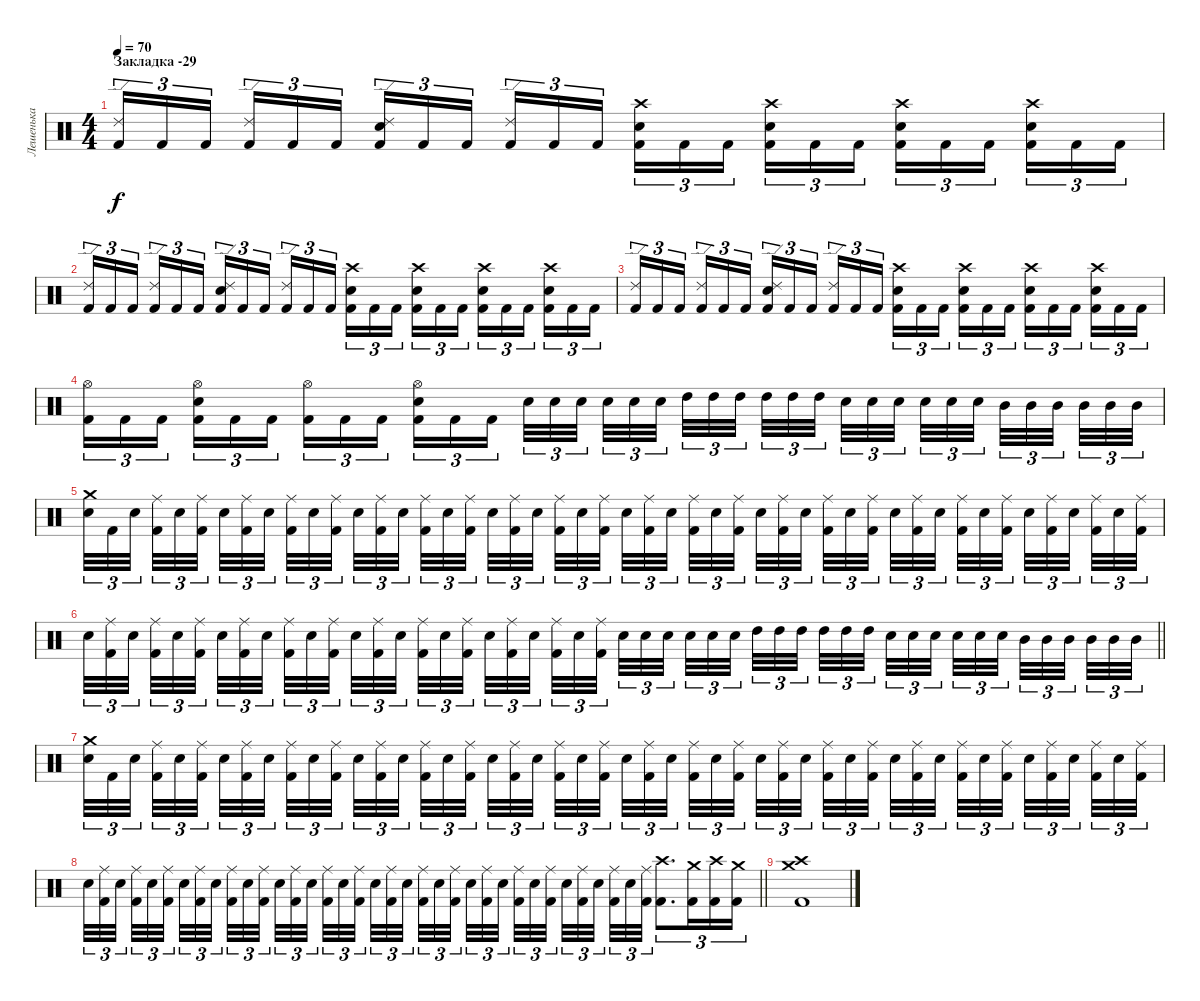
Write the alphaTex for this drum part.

\track ("Лешенька" "Лешенька") {instrument percussion}
\staff {score}
\articulation defaults
\ts (4 4)
\section ("" "Закладка -29")
\tempo 70
\clef neutral
\ks c
("Ride (edge) 2" "Kick (hit) 2").16{tu (3 2) dy f} "Kick (hit) 2".16{tu (3 2)} "Kick (hit) 2".16{tu (3 2) beam splitsecondary} ("Ride (edge) 2" "Kick (hit) 2").16{tu (3 2)} "Kick (hit) 2".16{tu (3 2)} "Kick (hit) 2".16{tu (3 2)} ("Ride (edge) 2" "Electric Snare (hit)" "Kick (hit) 2").16{tu (3 2)} "Kick (hit) 2".16{tu (3 2)} "Kick (hit) 2".16{tu (3 2) beam splitsecondary} ("Ride (edge) 2" "Kick (hit) 2").16{tu (3 2)} "Kick (hit) 2".16{tu (3 2)} "Kick (hit) 2".16{tu (3 2)} ("Crash high (hit)" "Electric Snare (hit)" "Kick (hit) 2").16{tu (3 2)} "Kick (hit) 2".16{tu (3 2)} "Kick (hit) 2".16{tu (3 2) beam splitsecondary} ("Crash high (hit)" "Electric Snare (hit)" "Kick (hit) 2").16{tu (3 2)} "Kick (hit) 2".16{tu (3 2)} "Kick (hit) 2".16{tu (3 2)} ("Crash high (hit)" "Electric Snare (hit)" "Kick (hit) 2").16{tu (3 2)} "Kick (hit) 2".16{tu (3 2)} "Kick (hit) 2".16{tu (3 2) beam splitsecondary} ("Crash high (hit)" "Electric Snare (hit)" "Kick (hit) 2").16{tu (3 2)} "Kick (hit) 2".16{tu (3 2)} "Kick (hit) 2".16{tu (3 2)} |
("Ride (edge) 2" "Kick (hit) 2").16{tu (3 2)} "Kick (hit) 2".16{tu (3 2)} "Kick (hit) 2".16{tu (3 2) beam splitsecondary} ("Ride (edge) 2" "Kick (hit) 2").16{tu (3 2)} "Kick (hit) 2".16{tu (3 2)} "Kick (hit) 2".16{tu (3 2)} ("Ride (edge) 2" "Electric Snare (hit)" "Kick (hit) 2").16{tu (3 2)} "Kick (hit) 2".16{tu (3 2)} "Kick (hit) 2".16{tu (3 2) beam splitsecondary} ("Ride (edge) 2" "Kick (hit) 2").16{tu (3 2)} "Kick (hit) 2".16{tu (3 2)} "Kick (hit) 2".16{tu (3 2)} ("Crash high (hit)" "Electric Snare (hit)" "Kick (hit) 2").16{tu (3 2)} "Kick (hit) 2".16{tu (3 2)} "Kick (hit) 2".16{tu (3 2) beam splitsecondary} ("Crash high (hit)" "Electric Snare (hit)" "Kick (hit) 2").16{tu (3 2)} "Kick (hit) 2".16{tu (3 2)} "Kick (hit) 2".16{tu (3 2)} ("Crash high (hit)" "Electric Snare (hit)" "Kick (hit) 2").16{tu (3 2)} "Kick (hit) 2".16{tu (3 2)} "Kick (hit) 2".16{tu (3 2) beam splitsecondary} ("Crash high (hit)" "Electric Snare (hit)" "Kick (hit) 2").16{tu (3 2)} "Kick (hit) 2".16{tu (3 2)} "Kick (hit) 2".16{tu (3 2)} |
("Ride (edge) 2" "Kick (hit) 2").16{tu (3 2)} "Kick (hit) 2".16{tu (3 2)} "Kick (hit) 2".16{tu (3 2) beam splitsecondary} ("Ride (edge) 2" "Kick (hit) 2").16{tu (3 2)} "Kick (hit) 2".16{tu (3 2)} "Kick (hit) 2".16{tu (3 2)} ("Ride (edge) 2" "Electric Snare (hit)" "Kick (hit) 2").16{tu (3 2)} "Kick (hit) 2".16{tu (3 2)} "Kick (hit) 2".16{tu (3 2) beam splitsecondary} ("Ride (edge) 2" "Kick (hit) 2").16{tu (3 2)} "Kick (hit) 2".16{tu (3 2)} "Kick (hit) 2".16{tu (3 2)} ("Crash high (hit)" "Electric Snare (hit)" "Kick (hit) 2").16{tu (3 2)} "Kick (hit) 2".16{tu (3 2)} "Kick (hit) 2".16{tu (3 2) beam splitsecondary} ("Crash high (hit)" "Electric Snare (hit)" "Kick (hit) 2").16{tu (3 2)} "Kick (hit) 2".16{tu (3 2)} "Kick (hit) 2".16{tu (3 2)} ("Crash high (hit)" "Electric Snare (hit)" "Kick (hit) 2").16{tu (3 2)} "Kick (hit) 2".16{tu (3 2)} "Kick (hit) 2".16{tu (3 2) beam splitsecondary} ("Crash high (hit)" "Electric Snare (hit)" "Kick (hit) 2").16{tu (3 2)} "Kick (hit) 2".16{tu (3 2)} "Kick (hit) 2".16{tu (3 2)} |
("Hi-Hat (open)" "Kick (hit) 2").16{tu (3 2)} "Kick (hit) 2".16{tu (3 2)} "Kick (hit) 2".16{tu (3 2) beam splitsecondary} ("Hi-Hat (open)" "Electric Snare (hit)" "Kick (hit) 2").16{tu (3 2)} "Kick (hit) 2".16{tu (3 2)} "Kick (hit) 2".16{tu (3 2)} ("Hi-Hat (open)" "Kick (hit) 2").16{tu (3 2)} "Kick (hit) 2".16{tu (3 2)} "Kick (hit) 2".16{tu (3 2) beam splitsecondary} ("Hi-Hat (open)" "Electric Snare (hit)" "Kick (hit) 2").16{tu (3 2)} "Kick (hit) 2".16{tu (3 2)} "Kick (hit) 2".16{tu (3 2)} "Electric Snare (hit)".32{tu (3 2)} "Electric Snare (hit)".32{tu (3 2)} "Electric Snare (hit)".32{tu (3 2) beam splitsecondary} "Electric Snare (hit)".32{tu (3 2)} "Electric Snare (hit)".32{tu (3 2)} "Electric Snare (hit)".32{tu (3 2) beam splitsecondary} "High Tom (hit)".32{tu (3 2)} "High Tom (hit)".32{tu (3 2)} "High Tom (hit)".32{tu (3 2) beam splitsecondary} "High Tom (hit)".32{tu (3 2)} "High Tom (hit)".32{tu (3 2)} "High Tom (hit)".32{tu (3 2)} "Electric Snare (hit)".32{tu (3 2)} "Electric Snare (hit)".32{tu (3 2)} "Electric Snare (hit)".32{tu (3 2) beam splitsecondary} "Electric Snare (hit)".32{tu (3 2)} "Electric Snare (hit)".32{tu (3 2)} "Electric Snare (hit)".32{tu (3 2) beam splitsecondary} "Mid Tom (hit)".32{tu (3 2)} "Mid Tom (hit)".32{tu (3 2)} "Mid Tom (hit)".32{tu (3 2) beam splitsecondary} "Mid Tom (hit)".32{tu (3 2)} "Mid Tom (hit)".32{tu (3 2)} "Mid Tom (hit)".32{tu (3 2)} |
("Crash medium (hit)" "Electric Snare (hit)").32{tu (3 2)} "Kick (hit) 2".32{tu (3 2)} "Electric Snare (hit)".32{tu (3 2) beam splitsecondary} ("Ride (middle)" "Kick (hit) 2").32{tu (3 2)} "Electric Snare (hit)".32{tu (3 2)} ("Ride (middle)" "Kick (hit) 2").32{tu (3 2) beam splitsecondary} "Electric Snare (hit)".32{tu (3 2)} ("Ride (middle)" "Kick (hit) 2").32{tu (3 2)} "Electric Snare (hit)".32{tu (3 2) beam splitsecondary} ("Ride (middle)" "Kick (hit) 2").32{tu (3 2)} "Electric Snare (hit)".32{tu (3 2)} ("Ride (middle)" "Kick (hit) 2").32{tu (3 2)} "Electric Snare (hit)".32{tu (3 2)} ("Ride (middle)" "Kick (hit) 2").32{tu (3 2)} "Electric Snare (hit)".32{tu (3 2) beam splitsecondary} ("Ride (middle)" "Kick (hit) 2").32{tu (3 2)} "Electric Snare (hit)".32{tu (3 2)} ("Ride (middle)" "Kick (hit) 2").32{tu (3 2) beam splitsecondary} "Electric Snare (hit)".32{tu (3 2)} ("Ride (middle)" "Kick (hit) 2").32{tu (3 2)} "Electric Snare (hit)".32{tu (3 2) beam splitsecondary} ("Ride (middle)" "Kick (hit) 2").32{tu (3 2)} "Electric Snare (hit)".32{tu (3 2)} ("Ride (middle)" "Kick (hit) 2").32{tu (3 2)} "Electric Snare (hit)".32{tu (3 2)} ("Ride (middle)" "Kick (hit) 2").32{tu (3 2)} "Electric Snare (hit)".32{tu (3 2) beam splitsecondary} ("Ride (middle)" "Kick (hit) 2").32{tu (3 2)} "Electric Snare (hit)".32{tu (3 2)} ("Ride (middle)" "Kick (hit) 2").32{tu (3 2) beam splitsecondary} "Electric Snare (hit)".32{tu (3 2)} ("Ride (middle)" "Kick (hit) 2").32{tu (3 2)} "Electric Snare (hit)".32{tu (3 2) beam splitsecondary} ("Ride (middle)" "Kick (hit) 2").32{tu (3 2)} "Electric Snare (hit)".32{tu (3 2)} ("Ride (middle)" "Kick (hit) 2").32{tu (3 2)} "Electric Snare (hit)".32{tu (3 2)} ("Ride (middle)" "Kick (hit) 2").32{tu (3 2)} "Electric Snare (hit)".32{tu (3 2) beam splitsecondary} ("Ride (middle)" "Kick (hit) 2").32{tu (3 2)} "Electric Snare (hit)".32{tu (3 2)} ("Ride (middle)" "Kick (hit) 2").32{tu (3 2) beam splitsecondary} "Electric Snare (hit)".32{tu (3 2)} ("Ride (middle)" "Kick (hit) 2").32{tu (3 2)} "Electric Snare (hit)".32{tu (3 2) beam splitsecondary} ("Ride (middle)" "Kick (hit) 2").32{tu (3 2)} "Electric Snare (hit)".32{tu (3 2)} ("Ride (middle)" "Kick (hit) 2").32{tu (3 2)} |
\barLineRight lightlight "Electric Snare (hit)".32{tu (3 2)}
("Ride (middle)" "Kick (hit) 2").32{tu (3 2)} "Electric Snare (hit)".32{tu (3 2) beam splitsecondary} ("Ride (middle)" "Kick (hit) 2").32{tu (3 2)} "Electric Snare (hit)".32{tu (3 2)} ("Ride (middle)" "Kick (hit) 2").32{tu (3 2) beam splitsecondary} "Electric Snare (hit)".32{tu (3 2)} ("Ride (middle)" "Kick (hit) 2").32{tu (3 2)} "Electric Snare (hit)".32{tu (3 2) beam splitsecondary} ("Ride (middle)" "Kick (hit) 2").32{tu (3 2)} "Electric Snare (hit)".32{tu (3 2)} ("Ride (middle)" "Kick (hit) 2").32{tu (3 2)} "Electric Snare (hit)".32{tu (3 2)} ("Ride (middle)" "Kick (hit) 2").32{tu (3 2)} "Electric Snare (hit)".32{tu (3 2) beam splitsecondary} ("Ride (middle)" "Kick (hit) 2").32{tu (3 2)} "Electric Snare (hit)".32{tu (3 2)} ("Ride (middle)" "Kick (hit) 2").32{tu (3 2) beam splitsecondary} "Electric Snare (hit)".32{tu (3 2)} ("Ride (middle)" "Kick (hit) 2").32{tu (3 2)} "Electric Snare (hit)".32{tu (3 2) beam splitsecondary} ("Ride (middle)" "Kick (hit) 2").32{tu (3 2)} "Electric Snare (hit)".32{tu (3 2)} ("Ride (middle)" "Kick (hit) 2").32{tu (3 2)} "Electric Snare (hit)".32{tu (3 2)} "Electric Snare (hit)".32{tu (3 2)} "Electric Snare (hit)".32{tu (3 2) beam splitsecondary} "Electric Snare (hit)".32{tu (3 2)} "Electric Snare (hit)".32{tu (3 2)} "Electric Snare (hit)".32{tu (3 2) beam splitsecondary} "High Tom (hit)".32{tu (3 2)} "High Tom (hit)".32{tu (3 2)} "High Tom (hit)".32{tu (3 2) beam splitsecondary} "High Tom (hit)".32{tu (3 2)} "High Tom (hit)".32{tu (3 2)} "High Tom (hit)".32{tu (3 2)} "Electric Snare (hit)".32{tu (3 2)} "Electric Snare (hit)".32{tu (3 2)} "Electric Snare (hit)".32{tu (3 2) beam splitsecondary} "Electric Snare (hit)".32{tu (3 2)} "Electric Snare (hit)".32{tu (3 2)} "Electric Snare (hit)".32{tu (3 2) beam splitsecondary} "Mid Tom (hit)".32{tu (3 2)} "Mid Tom (hit)".32{tu (3 2)} "Mid Tom (hit)".32{tu (3 2) beam splitsecondary} "Mid Tom (hit)".32{tu (3 2)} "Mid Tom (hit)".32{tu (3 2)} "Mid Tom (hit)".32{tu (3 2)} |
("Crash medium (hit)" "Electric Snare (hit)").32{tu (3 2)} "Kick (hit) 2".32{tu (3 2)} "Electric Snare (hit)".32{tu (3 2) beam splitsecondary} ("Ride (middle)" "Kick (hit) 2").32{tu (3 2)} "Electric Snare (hit)".32{tu (3 2)} ("Ride (middle)" "Kick (hit) 2").32{tu (3 2) beam splitsecondary} "Electric Snare (hit)".32{tu (3 2)} ("Ride (middle)" "Kick (hit) 2").32{tu (3 2)} "Electric Snare (hit)".32{tu (3 2) beam splitsecondary} ("Ride (middle)" "Kick (hit) 2").32{tu (3 2)} "Electric Snare (hit)".32{tu (3 2)} ("Ride (middle)" "Kick (hit) 2").32{tu (3 2)} "Electric Snare (hit)".32{tu (3 2)} ("Ride (middle)" "Kick (hit) 2").32{tu (3 2)} "Electric Snare (hit)".32{tu (3 2) beam splitsecondary} ("Ride (middle)" "Kick (hit) 2").32{tu (3 2)} "Electric Snare (hit)".32{tu (3 2)} ("Ride (middle)" "Kick (hit) 2").32{tu (3 2) beam splitsecondary} "Electric Snare (hit)".32{tu (3 2)} ("Ride (middle)" "Kick (hit) 2").32{tu (3 2)} "Electric Snare (hit)".32{tu (3 2) beam splitsecondary} ("Ride (middle)" "Kick (hit) 2").32{tu (3 2)} "Electric Snare (hit)".32{tu (3 2)} ("Ride (middle)" "Kick (hit) 2").32{tu (3 2)} "Electric Snare (hit)".32{tu (3 2)} ("Ride (middle)" "Kick (hit) 2").32{tu (3 2)} "Electric Snare (hit)".32{tu (3 2) beam splitsecondary} ("Ride (middle)" "Kick (hit) 2").32{tu (3 2)} "Electric Snare (hit)".32{tu (3 2)} ("Ride (middle)" "Kick (hit) 2").32{tu (3 2) beam splitsecondary} "Electric Snare (hit)".32{tu (3 2)} ("Ride (middle)" "Kick (hit) 2").32{tu (3 2)} "Electric Snare (hit)".32{tu (3 2) beam splitsecondary} ("Ride (middle)" "Kick (hit) 2").32{tu (3 2)} "Electric Snare (hit)".32{tu (3 2)} ("Ride (middle)" "Kick (hit) 2").32{tu (3 2)} "Electric Snare (hit)".32{tu (3 2)} ("Ride (middle)" "Kick (hit) 2").32{tu (3 2)} "Electric Snare (hit)".32{tu (3 2) beam splitsecondary} ("Ride (middle)" "Kick (hit) 2").32{tu (3 2)} "Electric Snare (hit)".32{tu (3 2)} ("Ride (middle)" "Kick (hit) 2").32{tu (3 2) beam splitsecondary} "Electric Snare (hit)".32{tu (3 2)} ("Ride (middle)" "Kick (hit) 2").32{tu (3 2)} "Electric Snare (hit)".32{tu (3 2) beam splitsecondary} ("Ride (middle)" "Kick (hit) 2").32{tu (3 2)} "Electric Snare (hit)".32{tu (3 2)} ("Ride (middle)" "Kick (hit) 2").32{tu (3 2)} |
\barLineRight lightlight "Electric Snare (hit)".32{tu (3 2)}
("Ride (middle)" "Kick (hit) 2").32{tu (3 2)} "Electric Snare (hit)".32{tu (3 2) beam splitsecondary} ("Ride (middle)" "Kick (hit) 2").32{tu (3 2)} "Electric Snare (hit)".32{tu (3 2)} ("Ride (middle)" "Kick (hit) 2").32{tu (3 2) beam splitsecondary} "Electric Snare (hit)".32{tu (3 2)} ("Ride (middle)" "Kick (hit) 2").32{tu (3 2)} "Electric Snare (hit)".32{tu (3 2) beam splitsecondary} ("Ride (middle)" "Kick (hit) 2").32{tu (3 2)} "Electric Snare (hit)".32{tu (3 2)} ("Ride (middle)" "Kick (hit) 2").32{tu (3 2)} "Electric Snare (hit)".32{tu (3 2)} ("Ride (middle)" "Kick (hit) 2").32{tu (3 2)} "Electric Snare (hit)".32{tu (3 2) beam splitsecondary} ("Ride (middle)" "Kick (hit) 2").32{tu (3 2)} "Electric Snare (hit)".32{tu (3 2)} ("Ride (middle)" "Kick (hit) 2").32{tu (3 2) beam splitsecondary} "Electric Snare (hit)".32{tu (3 2)} ("Ride (middle)" "Kick (hit) 2").32{tu (3 2)} "Electric Snare (hit)".32{tu (3 2) beam splitsecondary} ("Ride (middle)" "Kick (hit) 2").32{tu (3 2)} "Electric Snare (hit)".32{tu (3 2)} ("Ride (middle)" "Kick (hit) 2").32{tu (3 2)} "Electric Snare (hit)".32{tu (3 2)} ("Ride (middle)" "Kick (hit) 2").32{tu (3 2)} "Electric Snare (hit)".32{tu (3 2) beam splitsecondary} ("Ride (middle)" "Kick (hit) 2").32{tu (3 2)} "Electric Snare (hit)".32{tu (3 2)} ("Ride (middle)" "Kick (hit) 2").32{tu (3 2) beam splitsecondary} "Electric Snare (hit)".32{tu (3 2)} ("Ride (middle)" "Kick (hit) 2").32{tu (3 2)} "Electric Snare (hit)".32{tu (3 2) beam splitsecondary} ("Ride (middle)" "Kick (hit) 2").32{tu (3 2)} "Electric Snare (hit)".32{tu (3 2)} ("Ride (middle)" "Kick (hit) 2").32{tu (3 2)} ("Crash high (hit)" "Kick (hit) 2").8{d tu (3 2)} ("Crash medium (hit)" "Kick (hit) 2").16{tu (3 2)} ("Crash high (hit)" "Kick (hit) 2").16{tu (3 2)} ("Crash medium (hit)" "Kick (hit) 2").16{tu (3 2)} |
("Crash high (hit)" "Crash medium (hit)" "Kick (hit) 2").1
